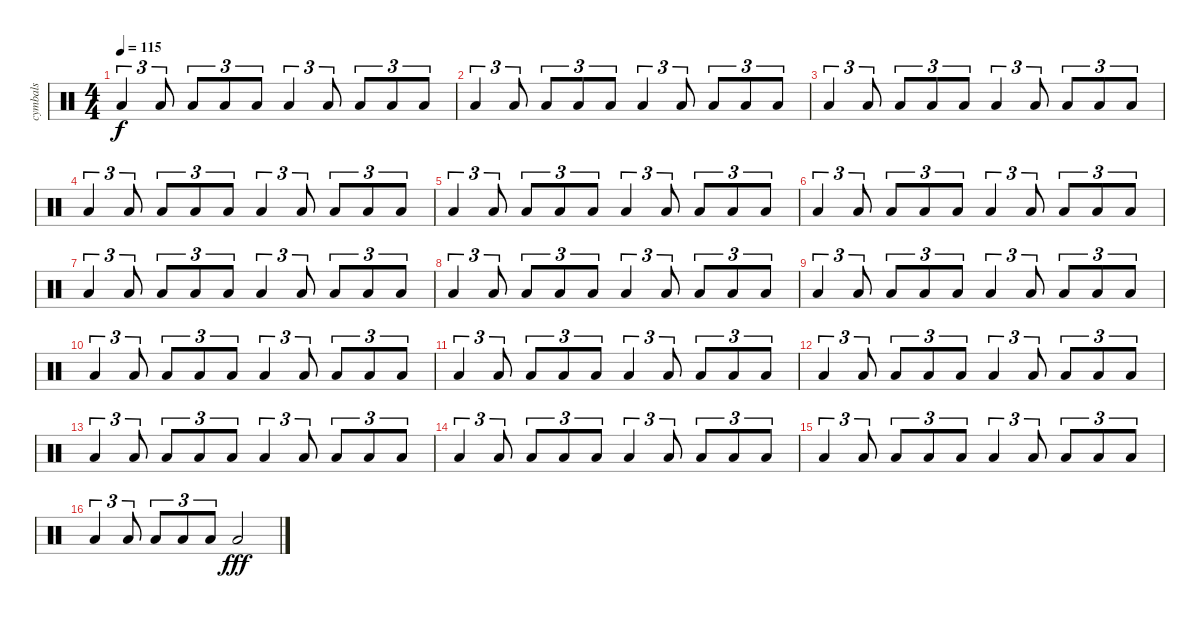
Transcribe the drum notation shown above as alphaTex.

\track ("cymbals" "cymbals") {instrument percussion}
\staff {score}
\articulation defaults
\ts (4 4)
\tempo 115
\clef neutral
\ks c "Low Floor Tom (hit)".4{tu (3 2) dy f} "Low Floor Tom (hit)".8{tu (3 2)} "Low Floor Tom (hit)".8{tu (3 2)} "Low Floor Tom (hit)".8{tu (3 2)} "Low Floor Tom (hit)".8{tu (3 2)} "Low Floor Tom (hit)".4{tu (3 2)} "Low Floor Tom (hit)".8{tu (3 2)} "Low Floor Tom (hit)".8{tu (3 2)} "Low Floor Tom (hit)".8{tu (3 2)} "Low Floor Tom (hit)".8{tu (3 2)}
|
"Low Floor Tom (hit)".4{tu (3 2)} "Low Floor Tom (hit)".8{tu (3 2)} "Low Floor Tom (hit)".8{tu (3 2)} "Low Floor Tom (hit)".8{tu (3 2)} "Low Floor Tom (hit)".8{tu (3 2)} "Low Floor Tom (hit)".4{tu (3 2)} "Low Floor Tom (hit)".8{tu (3 2)} "Low Floor Tom (hit)".8{tu (3 2)} "Low Floor Tom (hit)".8{tu (3 2)} "Low Floor Tom (hit)".8{tu (3 2)} |
"Low Floor Tom (hit)".4{tu (3 2)} "Low Floor Tom (hit)".8{tu (3 2)} "Low Floor Tom (hit)".8{tu (3 2)} "Low Floor Tom (hit)".8{tu (3 2)} "Low Floor Tom (hit)".8{tu (3 2)} "Low Floor Tom (hit)".4{tu (3 2)} "Low Floor Tom (hit)".8{tu (3 2)} "Low Floor Tom (hit)".8{tu (3 2)} "Low Floor Tom (hit)".8{tu (3 2)} "Low Floor Tom (hit)".8{tu (3 2)} |
"Low Floor Tom (hit)".4{tu (3 2)} "Low Floor Tom (hit)".8{tu (3 2)} "Low Floor Tom (hit)".8{tu (3 2)} "Low Floor Tom (hit)".8{tu (3 2)} "Low Floor Tom (hit)".8{tu (3 2)} "Low Floor Tom (hit)".4{tu (3 2)} "Low Floor Tom (hit)".8{tu (3 2)} "Low Floor Tom (hit)".8{tu (3 2)} "Low Floor Tom (hit)".8{tu (3 2)} "Low Floor Tom (hit)".8{tu (3 2)} |
"Low Floor Tom (hit)".4{tu (3 2)} "Low Floor Tom (hit)".8{tu (3 2)} "Low Floor Tom (hit)".8{tu (3 2)} "Low Floor Tom (hit)".8{tu (3 2)} "Low Floor Tom (hit)".8{tu (3 2)} "Low Floor Tom (hit)".4{tu (3 2)} "Low Floor Tom (hit)".8{tu (3 2)} "Low Floor Tom (hit)".8{tu (3 2)} "Low Floor Tom (hit)".8{tu (3 2)} "Low Floor Tom (hit)".8{tu (3 2)} |
"Low Floor Tom (hit)".4{tu (3 2)} "Low Floor Tom (hit)".8{tu (3 2)} "Low Floor Tom (hit)".8{tu (3 2)} "Low Floor Tom (hit)".8{tu (3 2)} "Low Floor Tom (hit)".8{tu (3 2)} "Low Floor Tom (hit)".4{tu (3 2)} "Low Floor Tom (hit)".8{tu (3 2)} "Low Floor Tom (hit)".8{tu (3 2)} "Low Floor Tom (hit)".8{tu (3 2)} "Low Floor Tom (hit)".8{tu (3 2)} |
"Low Floor Tom (hit)".4{tu (3 2)} "Low Floor Tom (hit)".8{tu (3 2)} "Low Floor Tom (hit)".8{tu (3 2)} "Low Floor Tom (hit)".8{tu (3 2)} "Low Floor Tom (hit)".8{tu (3 2)} "Low Floor Tom (hit)".4{tu (3 2)} "Low Floor Tom (hit)".8{tu (3 2)} "Low Floor Tom (hit)".8{tu (3 2)} "Low Floor Tom (hit)".8{tu (3 2)} "Low Floor Tom (hit)".8{tu (3 2)} |
"Low Floor Tom (hit)".4{tu (3 2)} "Low Floor Tom (hit)".8{tu (3 2)} "Low Floor Tom (hit)".8{tu (3 2)} "Low Floor Tom (hit)".8{tu (3 2)} "Low Floor Tom (hit)".8{tu (3 2)} "Low Floor Tom (hit)".4{tu (3 2)} "Low Floor Tom (hit)".8{tu (3 2)} "Low Floor Tom (hit)".8{tu (3 2)} "Low Floor Tom (hit)".8{tu (3 2)} "Low Floor Tom (hit)".8{tu (3 2)} |
"Low Floor Tom (hit)".4{tu (3 2)} "Low Floor Tom (hit)".8{tu (3 2)} "Low Floor Tom (hit)".8{tu (3 2)} "Low Floor Tom (hit)".8{tu (3 2)} "Low Floor Tom (hit)".8{tu (3 2)} "Low Floor Tom (hit)".4{tu (3 2)} "Low Floor Tom (hit)".8{tu (3 2)} "Low Floor Tom (hit)".8{tu (3 2)} "Low Floor Tom (hit)".8{tu (3 2)} "Low Floor Tom (hit)".8{tu (3 2)} |
"Low Floor Tom (hit)".4{tu (3 2)} "Low Floor Tom (hit)".8{tu (3 2)} "Low Floor Tom (hit)".8{tu (3 2)} "Low Floor Tom (hit)".8{tu (3 2)} "Low Floor Tom (hit)".8{tu (3 2)} "Low Floor Tom (hit)".4{tu (3 2)} "Low Floor Tom (hit)".8{tu (3 2)} "Low Floor Tom (hit)".8{tu (3 2)} "Low Floor Tom (hit)".8{tu (3 2)} "Low Floor Tom (hit)".8{tu (3 2)} |
"Low Floor Tom (hit)".4{tu (3 2)} "Low Floor Tom (hit)".8{tu (3 2)} "Low Floor Tom (hit)".8{tu (3 2)} "Low Floor Tom (hit)".8{tu (3 2)} "Low Floor Tom (hit)".8{tu (3 2)} "Low Floor Tom (hit)".4{tu (3 2)} "Low Floor Tom (hit)".8{tu (3 2)} "Low Floor Tom (hit)".8{tu (3 2)} "Low Floor Tom (hit)".8{tu (3 2)} "Low Floor Tom (hit)".8{tu (3 2)} |
"Low Floor Tom (hit)".4{tu (3 2)} "Low Floor Tom (hit)".8{tu (3 2)} "Low Floor Tom (hit)".8{tu (3 2)} "Low Floor Tom (hit)".8{tu (3 2)} "Low Floor Tom (hit)".8{tu (3 2)} "Low Floor Tom (hit)".4{tu (3 2)} "Low Floor Tom (hit)".8{tu (3 2)} "Low Floor Tom (hit)".8{tu (3 2)} "Low Floor Tom (hit)".8{tu (3 2)} "Low Floor Tom (hit)".8{tu (3 2)} |
"Low Floor Tom (hit)".4{tu (3 2)} "Low Floor Tom (hit)".8{tu (3 2)} "Low Floor Tom (hit)".8{tu (3 2)} "Low Floor Tom (hit)".8{tu (3 2)} "Low Floor Tom (hit)".8{tu (3 2)} "Low Floor Tom (hit)".4{tu (3 2)} "Low Floor Tom (hit)".8{tu (3 2)} "Low Floor Tom (hit)".8{tu (3 2)} "Low Floor Tom (hit)".8{tu (3 2)} "Low Floor Tom (hit)".8{tu (3 2)} |
"Low Floor Tom (hit)".4{tu (3 2)} "Low Floor Tom (hit)".8{tu (3 2)} "Low Floor Tom (hit)".8{tu (3 2)} "Low Floor Tom (hit)".8{tu (3 2)} "Low Floor Tom (hit)".8{tu (3 2)} "Low Floor Tom (hit)".4{tu (3 2)} "Low Floor Tom (hit)".8{tu (3 2)} "Low Floor Tom (hit)".8{tu (3 2)} "Low Floor Tom (hit)".8{tu (3 2)} "Low Floor Tom (hit)".8{tu (3 2)} |
"Low Floor Tom (hit)".4{tu (3 2)} "Low Floor Tom (hit)".8{tu (3 2)} "Low Floor Tom (hit)".8{tu (3 2)} "Low Floor Tom (hit)".8{tu (3 2)} "Low Floor Tom (hit)".8{tu (3 2)} "Low Floor Tom (hit)".4{tu (3 2)} "Low Floor Tom (hit)".8{tu (3 2)} "Low Floor Tom (hit)".8{tu (3 2)} "Low Floor Tom (hit)".8{tu (3 2)} "Low Floor Tom (hit)".8{tu (3 2)} |
"Low Floor Tom (hit)".4{tu (3 2)} "Low Floor Tom (hit)".8{tu (3 2)} "Low Floor Tom (hit)".8{tu (3 2)} "Low Floor Tom (hit)".8{tu (3 2)} "Low Floor Tom (hit)".8{tu (3 2)} "Low Floor Tom (hit)".2{dy fff}
